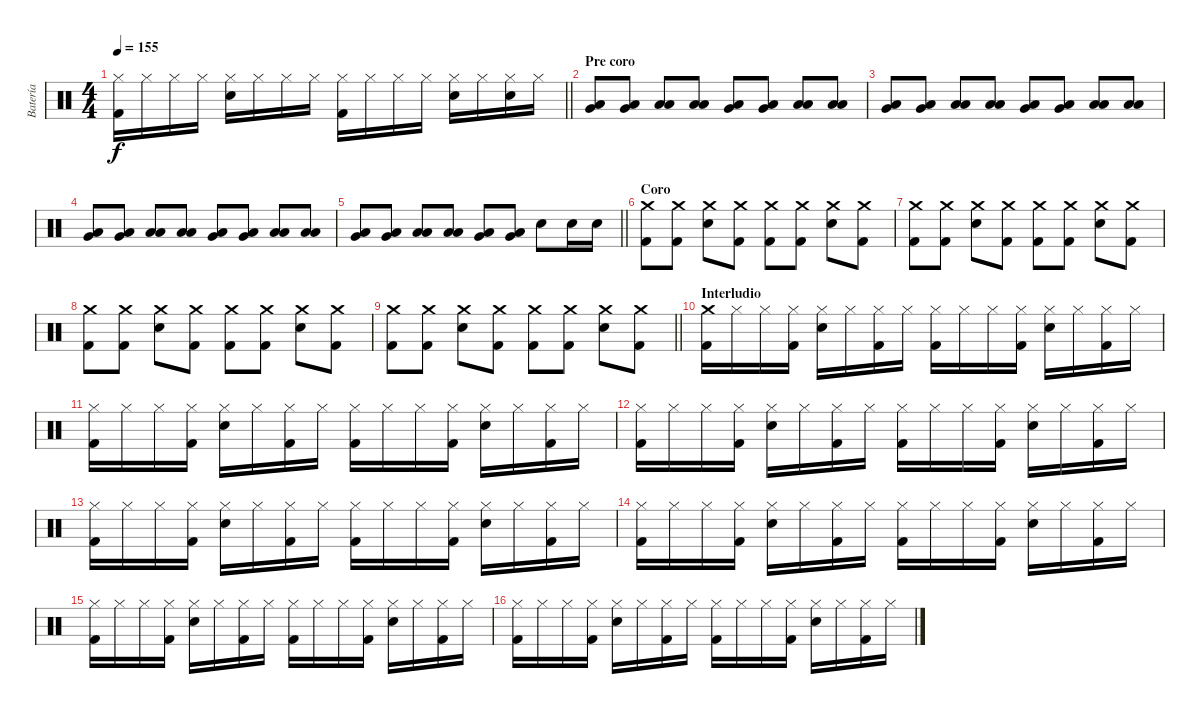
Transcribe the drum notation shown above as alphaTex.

\track ("Batería" "Batería") {instrument percussion}
\staff {score}
\articulation defaults
\ts (4 4)
\tempo 155
\clef neutral
\barLineRight lightlight
\ks c
("Hi-Hat (closed)" "Kick (hit) 2").16{dy f} "Hi-Hat (closed)".16 "Hi-Hat (closed)".16 "Hi-Hat (closed)".16 ("Hi-Hat (closed)" "Snare (hit) 2").16 "Hi-Hat (closed)".16 "Hi-Hat (closed)".16 "Hi-Hat (closed)".16 ("Hi-Hat (closed)" "Kick (hit) 2").16 "Hi-Hat (closed)".16 "Hi-Hat (closed)".16 "Hi-Hat (closed)".16 ("Hi-Hat (closed)" "Snare (hit) 2").16 "Hi-Hat (closed)".16 ("Hi-Hat (closed)" "Snare (hit) 2").16 "Hi-Hat (closed)".16 |
\section ("" "Pre coro")
("Very Low Tom (hit)" "Low Floor Tom (hit)").8 ("Very Low Tom (hit)" "Low Floor Tom (hit)").8 ("Low Tom (hit)" "Low Floor Tom (hit)").8 ("Low Tom (hit)" "Low Floor Tom (hit)").8 ("Very Low Tom (hit)" "Low Floor Tom (hit)").8 ("Very Low Tom (hit)" "Low Floor Tom (hit)").8 ("Low Tom (hit)" "Low Floor Tom (hit)").8 ("Low Tom (hit)" "Low Floor Tom (hit)").8 |
("Very Low Tom (hit)" "Low Floor Tom (hit)").8 ("Very Low Tom (hit)" "Low Floor Tom (hit)").8 ("Low Tom (hit)" "Low Floor Tom (hit)").8 ("Low Tom (hit)" "Low Floor Tom (hit)").8 ("Very Low Tom (hit)" "Low Floor Tom (hit)").8 ("Very Low Tom (hit)" "Low Floor Tom (hit)").8 ("Low Tom (hit)" "Low Floor Tom (hit)").8 ("Low Tom (hit)" "Low Floor Tom (hit)").8 |
("Very Low Tom (hit)" "Low Floor Tom (hit)").8 ("Very Low Tom (hit)" "Low Floor Tom (hit)").8 ("Low Tom (hit)" "Low Floor Tom (hit)").8 ("Low Tom (hit)" "Low Floor Tom (hit)").8 ("Very Low Tom (hit)" "Low Floor Tom (hit)").8 ("Very Low Tom (hit)" "Low Floor Tom (hit)").8 ("Low Tom (hit)" "Low Floor Tom (hit)").8 ("Low Tom (hit)" "Low Floor Tom (hit)").8 |
\barLineRight lightlight
("Very Low Tom (hit)" "Low Floor Tom (hit)").8 ("Very Low Tom (hit)" "Low Floor Tom (hit)").8 ("Low Tom (hit)" "Low Floor Tom (hit)").8 ("Low Tom (hit)" "Low Floor Tom (hit)").8 ("Very Low Tom (hit)" "Low Floor Tom (hit)").8 ("Very Low Tom (hit)" "Low Floor Tom (hit)").8 "Snare (hit) 2".8 "Snare (hit) 2".16 "Snare (hit) 2".16 |
\section ("" "Coro")
("Crash medium (hit)" "Kick (hit) 2").8 ("Crash medium (hit)" "Kick (hit) 2").8 ("Crash medium (hit)" "Snare (hit) 2").8 ("Crash medium (hit)" "Kick (hit) 2").8 ("Crash medium (hit)" "Kick (hit) 2").8 ("Crash medium (hit)" "Kick (hit) 2").8 ("Crash medium (hit)" "Snare (hit) 2").8 ("Crash medium (hit)" "Kick (hit) 2").8 |
("Crash medium (hit)" "Kick (hit) 2").8 ("Crash medium (hit)" "Kick (hit) 2").8 ("Crash medium (hit)" "Snare (hit) 2").8 ("Crash medium (hit)" "Kick (hit) 2").8 ("Crash medium (hit)" "Kick (hit) 2").8 ("Crash medium (hit)" "Kick (hit) 2").8 ("Crash medium (hit)" "Snare (hit) 2").8 ("Crash medium (hit)" "Kick (hit) 2").8 |
("Crash medium (hit)" "Kick (hit) 2").8 ("Crash medium (hit)" "Kick (hit) 2").8 ("Crash medium (hit)" "Snare (hit) 2").8 ("Crash medium (hit)" "Kick (hit) 2").8 ("Crash medium (hit)" "Kick (hit) 2").8 ("Crash medium (hit)" "Kick (hit) 2").8 ("Crash medium (hit)" "Snare (hit) 2").8 ("Crash medium (hit)" "Kick (hit) 2").8 |
\barLineRight lightlight
("Crash medium (hit)" "Kick (hit) 2").8 ("Crash medium (hit)" "Kick (hit) 2").8 ("Crash medium (hit)" "Snare (hit) 2").8 ("Crash medium (hit)" "Kick (hit) 2").8 ("Crash medium (hit)" "Kick (hit) 2").8 ("Crash medium (hit)" "Kick (hit) 2").8 ("Crash medium (hit)" "Snare (hit) 2").8 ("Crash medium (hit)" "Kick (hit) 2").8 |
\section ("" "Interludio")
("Crash medium (hit)" "Kick (hit) 2").16 "Hi-Hat (closed)".16 "Hi-Hat (closed)".16 ("Hi-Hat (closed)" "Kick (hit) 2").16 ("Hi-Hat (closed)" "Snare (hit) 2").16 "Hi-Hat (closed)".16 ("Hi-Hat (closed)" "Kick (hit) 2").16 "Hi-Hat (closed)".16 ("Hi-Hat (closed)" "Kick (hit) 2").16 "Hi-Hat (closed)".16 "Hi-Hat (closed)".16 ("Hi-Hat (closed)" "Kick (hit) 2").16 ("Hi-Hat (closed)" "Snare (hit) 2").16 "Hi-Hat (closed)".16 ("Hi-Hat (closed)" "Kick (hit) 2").16 "Hi-Hat (closed)".16 |
("Hi-Hat (closed)" "Kick (hit) 2").16 "Hi-Hat (closed)".16 "Hi-Hat (closed)".16 ("Hi-Hat (closed)" "Kick (hit) 2").16 ("Hi-Hat (closed)" "Snare (hit) 2").16 "Hi-Hat (closed)".16 ("Hi-Hat (closed)" "Kick (hit) 2").16 "Hi-Hat (closed)".16 ("Hi-Hat (closed)" "Kick (hit) 2").16 "Hi-Hat (closed)".16 "Hi-Hat (closed)".16 ("Hi-Hat (closed)" "Kick (hit) 2").16 ("Hi-Hat (closed)" "Snare (hit) 2").16 "Hi-Hat (closed)".16 ("Hi-Hat (closed)" "Kick (hit) 2").16 "Hi-Hat (closed)".16 |
("Hi-Hat (closed)" "Kick (hit) 2").16 "Hi-Hat (closed)".16 "Hi-Hat (closed)".16 ("Hi-Hat (closed)" "Kick (hit) 2").16 ("Hi-Hat (closed)" "Snare (hit) 2").16 "Hi-Hat (closed)".16 ("Hi-Hat (closed)" "Kick (hit) 2").16 "Hi-Hat (closed)".16 ("Hi-Hat (closed)" "Kick (hit) 2").16 "Hi-Hat (closed)".16 "Hi-Hat (closed)".16 ("Hi-Hat (closed)" "Kick (hit) 2").16 ("Hi-Hat (closed)" "Snare (hit) 2").16 "Hi-Hat (closed)".16 ("Hi-Hat (closed)" "Kick (hit) 2").16 "Hi-Hat (closed)".16 |
("Hi-Hat (closed)" "Kick (hit) 2").16 "Hi-Hat (closed)".16 "Hi-Hat (closed)".16 ("Hi-Hat (closed)" "Kick (hit) 2").16 ("Hi-Hat (closed)" "Snare (hit) 2").16 "Hi-Hat (closed)".16 ("Hi-Hat (closed)" "Kick (hit) 2").16 "Hi-Hat (closed)".16 ("Hi-Hat (closed)" "Kick (hit) 2").16 "Hi-Hat (closed)".16 "Hi-Hat (closed)".16 ("Hi-Hat (closed)" "Kick (hit) 2").16 ("Hi-Hat (closed)" "Snare (hit) 2").16 "Hi-Hat (closed)".16 ("Hi-Hat (closed)" "Kick (hit) 2").16 "Hi-Hat (closed)".16 |
("Hi-Hat (closed)" "Kick (hit) 2").16 "Hi-Hat (closed)".16 "Hi-Hat (closed)".16 ("Hi-Hat (closed)" "Kick (hit) 2").16 ("Hi-Hat (closed)" "Snare (hit) 2").16 "Hi-Hat (closed)".16 ("Hi-Hat (closed)" "Kick (hit) 2").16 "Hi-Hat (closed)".16 ("Hi-Hat (closed)" "Kick (hit) 2").16 "Hi-Hat (closed)".16 "Hi-Hat (closed)".16 ("Hi-Hat (closed)" "Kick (hit) 2").16 ("Hi-Hat (closed)" "Snare (hit) 2").16 "Hi-Hat (closed)".16 ("Hi-Hat (closed)" "Kick (hit) 2").16 "Hi-Hat (closed)".16 |
("Hi-Hat (closed)" "Kick (hit) 2").16 "Hi-Hat (closed)".16 "Hi-Hat (closed)".16 ("Hi-Hat (closed)" "Kick (hit) 2").16 ("Hi-Hat (closed)" "Snare (hit) 2").16 "Hi-Hat (closed)".16 ("Hi-Hat (closed)" "Kick (hit) 2").16 "Hi-Hat (closed)".16 ("Hi-Hat (closed)" "Kick (hit) 2").16 "Hi-Hat (closed)".16 "Hi-Hat (closed)".16 ("Hi-Hat (closed)" "Kick (hit) 2").16 ("Hi-Hat (closed)" "Snare (hit) 2").16 "Hi-Hat (closed)".16 ("Hi-Hat (closed)" "Kick (hit) 2").16 "Hi-Hat (closed)".16 |
("Hi-Hat (closed)" "Kick (hit) 2").16 "Hi-Hat (closed)".16 "Hi-Hat (closed)".16 ("Hi-Hat (closed)" "Kick (hit) 2").16 ("Hi-Hat (closed)" "Snare (hit) 2").16 "Hi-Hat (closed)".16 ("Hi-Hat (closed)" "Kick (hit) 2").16 "Hi-Hat (closed)".16 ("Hi-Hat (closed)" "Kick (hit) 2").16 "Hi-Hat (closed)".16 "Hi-Hat (closed)".16 ("Hi-Hat (closed)" "Kick (hit) 2").16 ("Hi-Hat (closed)" "Snare (hit) 2").16 "Hi-Hat (closed)".16 ("Hi-Hat (closed)" "Kick (hit) 2").16 "Hi-Hat (closed)".16
